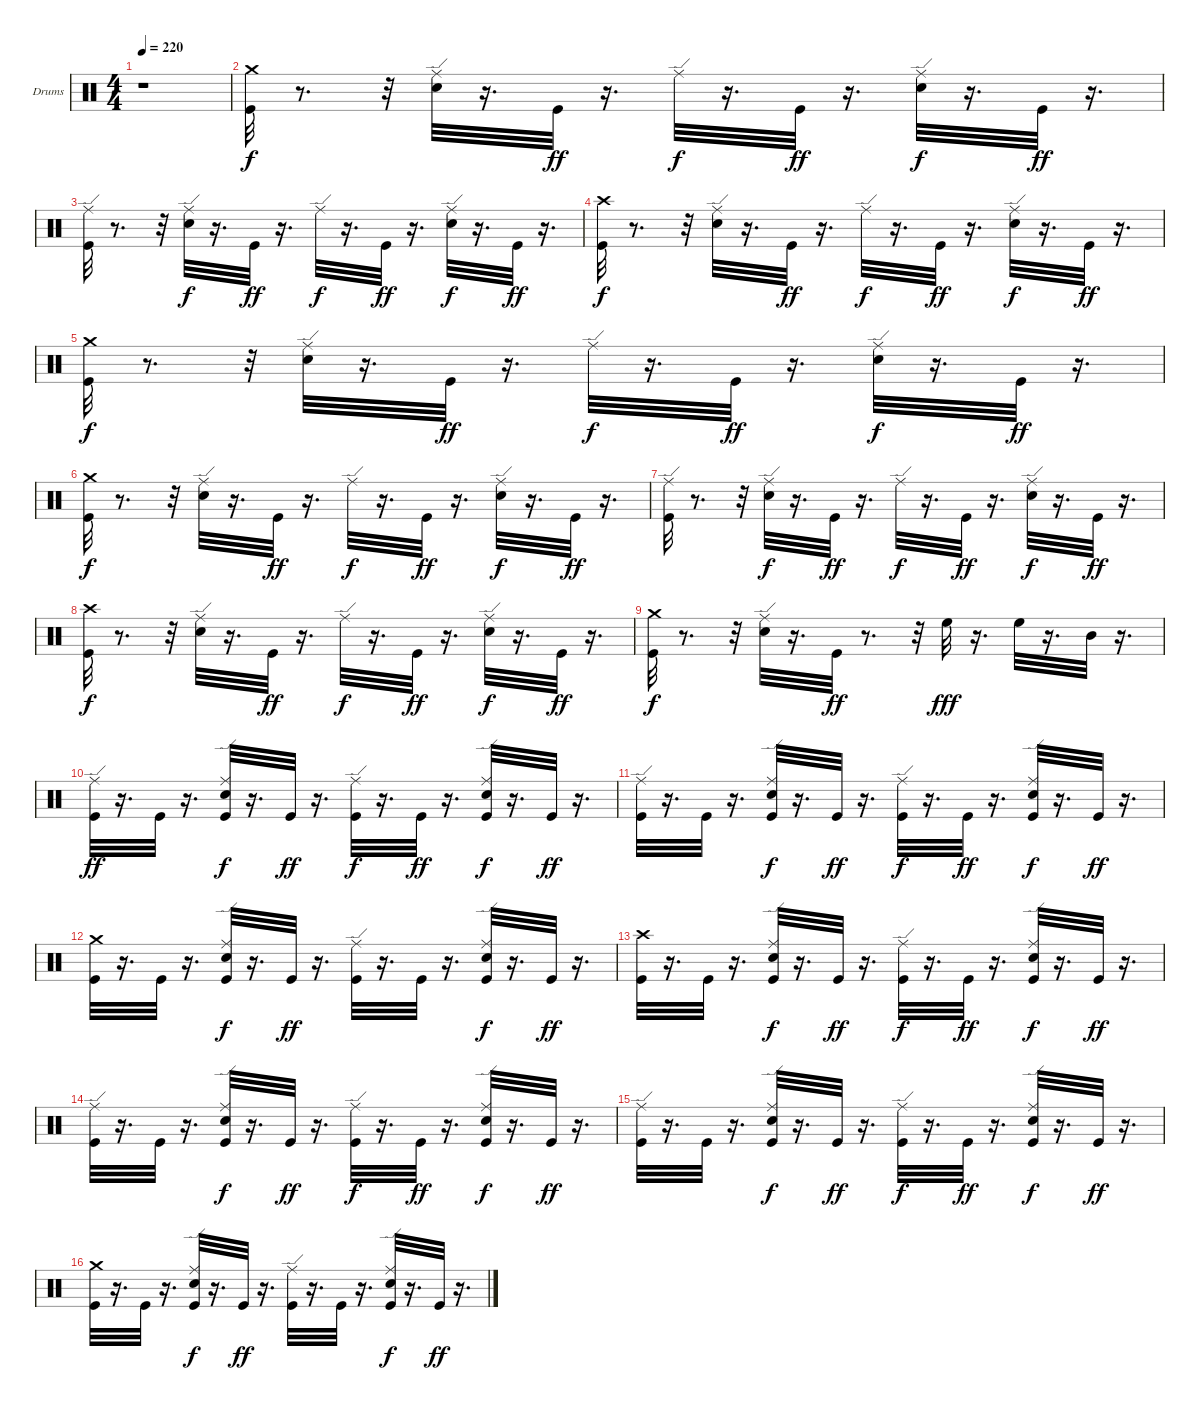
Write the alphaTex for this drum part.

\defaultSystemsLayout 4
\bracketExtendMode groupsimilarinstruments
\firstSystemTrackNameOrientation horizontal
\otherSystemsTrackNameOrientation horizontal
\track ("Дмитрий Кривенков" "Drums") {instrument percussion}
\staff {score}
\articulation defaults
\ts (4 4)
\tempo 220
\clef neutral
\ks c
r.1{dy f} |
("Crash medium (hit)" "Kick (hit)").32 r.8{d} r.32 ("Ride (edge)" "Snare (hit) 2").32 r.16{d} "Kick (hit)".32{dy ff} r.16{d} "Ride (edge)".32{dy f} r.16{d} "Kick (hit)".32{dy ff} r.16{d} ("Ride (edge)" "Snare (hit) 2").32{dy f} r.16{d} "Kick (hit)".32{dy ff} r.16{d} |
("Kick (hit)" "Ride (edge)").32 r.8{d} r.32 ("Snare (hit) 2" "Ride (edge)").32{dy f} r.16{d} "Kick (hit)".32{dy ff} r.16{d} "Ride (edge)".32{dy f} r.16{d} "Kick (hit)".32{dy ff} r.16{d} ("Snare (hit) 2" "Ride (edge)").32{dy f} r.16{d} "Kick (hit)".32{dy ff} r.16{d} |
("Crash high (hit)" "Kick (hit)").32{dy f} r.8{d} r.32 ("Ride (edge)" "Snare (hit) 2").32 r.16{d} "Kick (hit)".32{dy ff} r.16{d} "Ride (edge)".32{dy f} r.16{d} "Kick (hit)".32{dy ff} r.16{d} ("Ride (edge)" "Snare (hit) 2").32{dy f} r.16{d} "Kick (hit)".32{dy ff} r.16{d} |
("Crash medium (hit)" "Kick (hit)").32{dy f} r.8{d} r.32 ("Ride (edge)" "Snare (hit) 2").32 r.16{d} "Kick (hit)".32{dy ff} r.16{d} "Ride (edge)".32{dy f} r.16{d} "Kick (hit)".32{dy ff} r.16{d} ("Ride (edge)" "Snare (hit) 2").32{dy f} r.16{d} "Kick (hit)".32{dy ff} r.16{d} |
("Crash medium (hit)" "Kick (hit)").32{dy f} r.8{d} r.32 ("Ride (edge)" "Snare (hit) 2").32 r.16{d} "Kick (hit)".32{dy ff} r.16{d} "Ride (edge)".32{dy f} r.16{d} "Kick (hit)".32{dy ff} r.16{d} ("Ride (edge)" "Snare (hit) 2").32{dy f} r.16{d} "Kick (hit)".32{dy ff} r.16{d} |
("Kick (hit)" "Ride (edge)").32 r.8{d} r.32 ("Snare (hit) 2" "Ride (edge)").32{dy f} r.16{d} "Kick (hit)".32{dy ff} r.16{d} "Ride (edge)".32{dy f} r.16{d} "Kick (hit)".32{dy ff} r.16{d} ("Snare (hit) 2" "Ride (edge)").32{dy f} r.16{d} "Kick (hit)".32{dy ff} r.16{d} |
("Crash high (hit)" "Kick (hit)").32{dy f} r.8{d} r.32 ("Ride (edge)" "Snare (hit) 2").32 r.16{d} "Kick (hit)".32{dy ff} r.16{d} "Ride (edge)".32{dy f} r.16{d} "Kick (hit)".32{dy ff} r.16{d} ("Ride (edge)" "Snare (hit) 2").32{dy f} r.16{d} "Kick (hit)".32{dy ff} r.16{d} |
("Crash medium (hit)" "Kick (hit)").32{dy f} r.8{d} r.32 ("Ride (edge)" "Snare (hit) 2").32 r.16{d} "Kick (hit)".32{dy ff} r.8{d} r.32 "High Floor Tom (hit)".32{dy fff} r.16{d} "High Floor Tom (hit)".32 r.16{d} "Mid Tom (hit)".32 r.16{d} |
("Kick (hit)" "Ride (edge)").32{dy ff} r.16{d} "Kick (hit)".32 r.16{d} ("Snare (hit) 2" "Kick (hit)" "Ride (edge)").32{dy f} r.16{d} "Kick (hit)".32{dy ff} r.16{d} ("Ride (edge)" "Kick (hit)").32{dy f} r.16{d} "Kick (hit)".32{dy ff} r.16{d} ("Snare (hit) 2" "Kick (hit)" "Ride (edge)").32{dy f} r.16{d} "Kick (hit)".32{dy ff} r.16{d} |
("Kick (hit)" "Ride (edge)").32 r.16{d} "Kick (hit)".32 r.16{d} ("Snare (hit) 2" "Kick (hit)" "Ride (edge)").32{dy f} r.16{d} "Kick (hit)".32{dy ff} r.16{d} ("Ride (edge)" "Kick (hit)").32{dy f} r.16{d} "Kick (hit)".32{dy ff} r.16{d} ("Snare (hit) 2" "Kick (hit)" "Ride (edge)").32{dy f} r.16{d} "Kick (hit)".32{dy ff} r.16{d} |
("Kick (hit)" "Crash medium (hit)").32 r.16{d} "Kick (hit)".32 r.16{d} ("Ride (edge)" "Snare (hit) 2" "Kick (hit)").32{dy f} r.16{d} "Kick (hit)".32{dy ff} r.16{d} ("Kick (hit)" "Ride (edge)").32 r.16{d} "Kick (hit)".32 r.16{d} ("Ride (edge)" "Snare (hit) 2" "Kick (hit)").32{dy f} r.16{d} "Kick (hit)".32{dy ff} r.16{d} |
("Kick (hit)" "Crash high (hit)").32 r.16{d} "Kick (hit)".32 r.16{d} ("Snare (hit) 2" "Kick (hit)" "Ride (edge)").32{dy f} r.16{d} "Kick (hit)".32{dy ff} r.16{d} ("Ride (edge)" "Kick (hit)").32{dy f} r.16{d} "Kick (hit)".32{dy ff} r.16{d} ("Snare (hit) 2" "Kick (hit)" "Ride (edge)").32{dy f} r.16{d} "Kick (hit)".32{dy ff} r.16{d} |
("Kick (hit)" "Ride (edge)").32 r.16{d} "Kick (hit)".32 r.16{d} ("Snare (hit) 2" "Kick (hit)" "Ride (edge)").32{dy f} r.16{d} "Kick (hit)".32{dy ff} r.16{d} ("Ride (edge)" "Kick (hit)").32{dy f} r.16{d} "Kick (hit)".32{dy ff} r.16{d} ("Snare (hit) 2" "Kick (hit)" "Ride (edge)").32{dy f} r.16{d} "Kick (hit)".32{dy ff} r.16{d} |
("Kick (hit)" "Ride (edge)").32 r.16{d} "Kick (hit)".32 r.16{d} ("Snare (hit) 2" "Kick (hit)" "Ride (edge)").32{dy f} r.16{d} "Kick (hit)".32{dy ff} r.16{d} ("Ride (edge)" "Kick (hit)").32{dy f} r.16{d} "Kick (hit)".32{dy ff} r.16{d} ("Snare (hit) 2" "Kick (hit)" "Ride (edge)").32{dy f} r.16{d} "Kick (hit)".32{dy ff} r.16{d} |
("Kick (hit)" "Crash medium (hit)").32 r.16{d} "Kick (hit)".32 r.16{d} ("Ride (edge)" "Snare (hit) 2" "Kick (hit)").32{dy f} r.16{d} "Kick (hit)".32{dy ff} r.16{d} ("Kick (hit)" "Ride (edge)").32 r.16{d} "Kick (hit)".32 r.16{d} ("Ride (edge)" "Snare (hit) 2" "Kick (hit)").32{dy f} r.16{d} "Kick (hit)".32{dy ff} r.16{d}
